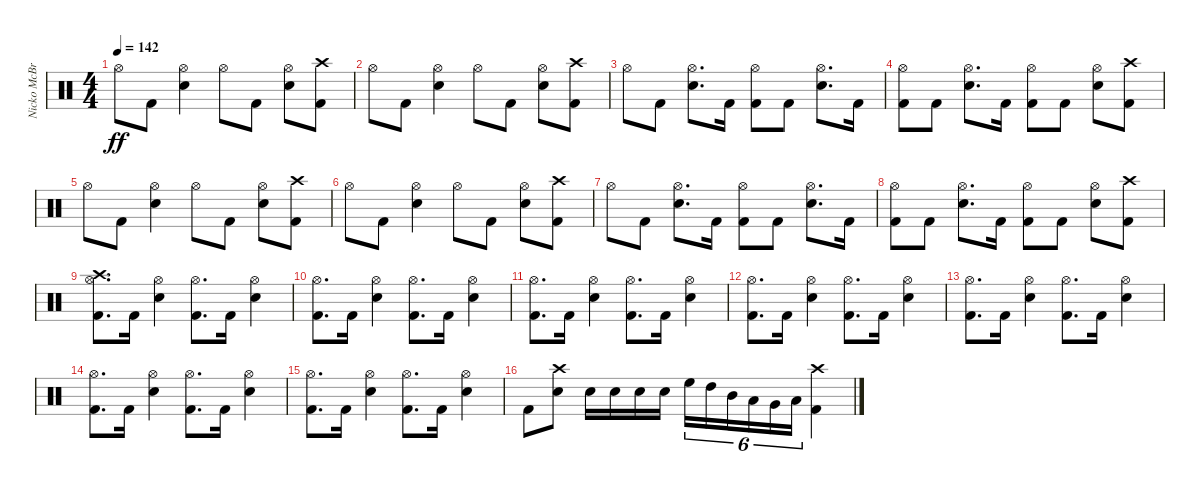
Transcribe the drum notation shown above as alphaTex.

\track ("Nicko McBrain" "Nicko McBr") {instrument percussion}
\staff {score}
\articulation defaults
\ts (4 4)
\tempo 142
\clef neutral
\ks c "Hi-Hat (open)".8{dy ff} "Kick (hit) 2".8
("Snare (hit) 2" "Hi-Hat (open)").4 "Hi-Hat (open)".8 "Kick (hit) 2".8 ("Snare (hit) 2" "Hi-Hat (open)").8 ("Kick (hit) 2" "Crash high (hit)").8 |
"Hi-Hat (open)".8 "Kick (hit) 2".8 ("Snare (hit) 2" "Hi-Hat (open)").4 "Hi-Hat (open)".8 "Kick (hit) 2".8 ("Snare (hit) 2" "Hi-Hat (open)").8 ("Kick (hit) 2" "Crash high (hit)").8 |
"Hi-Hat (open)".8 "Kick (hit) 2".8 ("Snare (hit) 2" "Hi-Hat (open)").8{d} "Kick (hit) 2".16 ("Kick (hit) 2" "Hi-Hat (open)").8 "Kick (hit) 2".8 ("Snare (hit) 2" "Hi-Hat (open)").8{d} "Kick (hit) 2".16 |
("Kick (hit) 2" "Hi-Hat (open)").8 "Kick (hit) 2".8 ("Snare (hit) 2" "Hi-Hat (open)").8{d} "Kick (hit) 2".16 ("Kick (hit) 2" "Hi-Hat (open)").8 "Kick (hit) 2".8 ("Snare (hit) 2" "Hi-Hat (open)").8 ("Kick (hit) 2" "Crash high (hit)").8 |
"Hi-Hat (open)".8 "Kick (hit) 2".8 ("Snare (hit) 2" "Hi-Hat (open)").4 "Hi-Hat (open)".8 "Kick (hit) 2".8 ("Snare (hit) 2" "Hi-Hat (open)").8 ("Kick (hit) 2" "Crash high (hit)").8 |
"Hi-Hat (open)".8 "Kick (hit) 2".8 ("Snare (hit) 2" "Hi-Hat (open)").4 "Hi-Hat (open)".8 "Kick (hit) 2".8 ("Snare (hit) 2" "Hi-Hat (open)").8 ("Kick (hit) 2" "Crash high (hit)").8 |
"Hi-Hat (open)".8 "Kick (hit) 2".8 ("Snare (hit) 2" "Hi-Hat (open)").8{d} "Kick (hit) 2".16 ("Kick (hit) 2" "Hi-Hat (open)").8 "Kick (hit) 2".8 ("Snare (hit) 2" "Hi-Hat (open)").8{d} "Kick (hit) 2".16 |
("Kick (hit) 2" "Hi-Hat (open)").8 "Kick (hit) 2".8 ("Snare (hit) 2" "Hi-Hat (open)").8{d} "Kick (hit) 2".16 ("Kick (hit) 2" "Hi-Hat (open)").8 "Kick (hit) 2".8 ("Snare (hit) 2" "Hi-Hat (open)").8 ("Kick (hit) 2" "Crash high (hit)").8 |
("Kick (hit) 2" "Hi-Hat (open)" "Crash high (hit)").8{d} "Kick (hit) 2".16 ("Snare (hit) 2" "Hi-Hat (open)").4 ("Kick (hit) 2" "Hi-Hat (open)").8{d} "Kick (hit) 2".16 ("Snare (hit) 2" "Hi-Hat (open)").4 |
("Kick (hit) 2" "Hi-Hat (open)").8{d} "Kick (hit) 2".16 ("Snare (hit) 2" "Hi-Hat (open)").4 ("Kick (hit) 2" "Hi-Hat (open)").8{d} "Kick (hit) 2".16 ("Snare (hit) 2" "Hi-Hat (open)").4 |
("Kick (hit) 2" "Hi-Hat (open)").8{d} "Kick (hit) 2".16 ("Snare (hit) 2" "Hi-Hat (open)").4 ("Kick (hit) 2" "Hi-Hat (open)").8{d} "Kick (hit) 2".16 ("Snare (hit) 2" "Hi-Hat (open)").4 |
("Kick (hit) 2" "Hi-Hat (open)").8{d} "Kick (hit) 2".16 ("Snare (hit) 2" "Hi-Hat (open)").4 ("Kick (hit) 2" "Hi-Hat (open)").8{d} "Kick (hit) 2".16 ("Snare (hit) 2" "Hi-Hat (open)").4 |
("Kick (hit) 2" "Hi-Hat (open)").8{d} "Kick (hit) 2".16 ("Snare (hit) 2" "Hi-Hat (open)").4 ("Kick (hit) 2" "Hi-Hat (open)").8{d} "Kick (hit) 2".16 ("Snare (hit) 2" "Hi-Hat (open)").4 |
("Kick (hit) 2" "Hi-Hat (open)").8{d} "Kick (hit) 2".16 ("Snare (hit) 2" "Hi-Hat (open)").4 ("Kick (hit) 2" "Hi-Hat (open)").8{d} "Kick (hit) 2".16 ("Snare (hit) 2" "Hi-Hat (open)").4 |
("Kick (hit) 2" "Hi-Hat (open)").8{d} "Kick (hit) 2".16 ("Snare (hit) 2" "Hi-Hat (open)").4 ("Kick (hit) 2" "Hi-Hat (open)").8{d} "Kick (hit) 2".16 ("Snare (hit) 2" "Hi-Hat (open)").4 |
"Kick (hit) 2".8 ("Snare (hit) 2" "Crash high (hit)").8 "Snare (hit) 2".16 "Snare (hit) 2".16 "Snare (hit) 2".16 "Snare (hit) 2".16 "High Floor Tom (hit)".16{tu (6 4)} "High Tom (hit)".16{tu (6 4)} "Mid Tom (hit)".16{tu (6 4)} "Low Tom (hit)".16{tu (6 4)} "Very Low Tom (hit)".16{tu (6 4)} "Low Floor Tom (hit)".16{tu (6 4)} ("Kick (hit) 2" "Crash high (hit)").4
